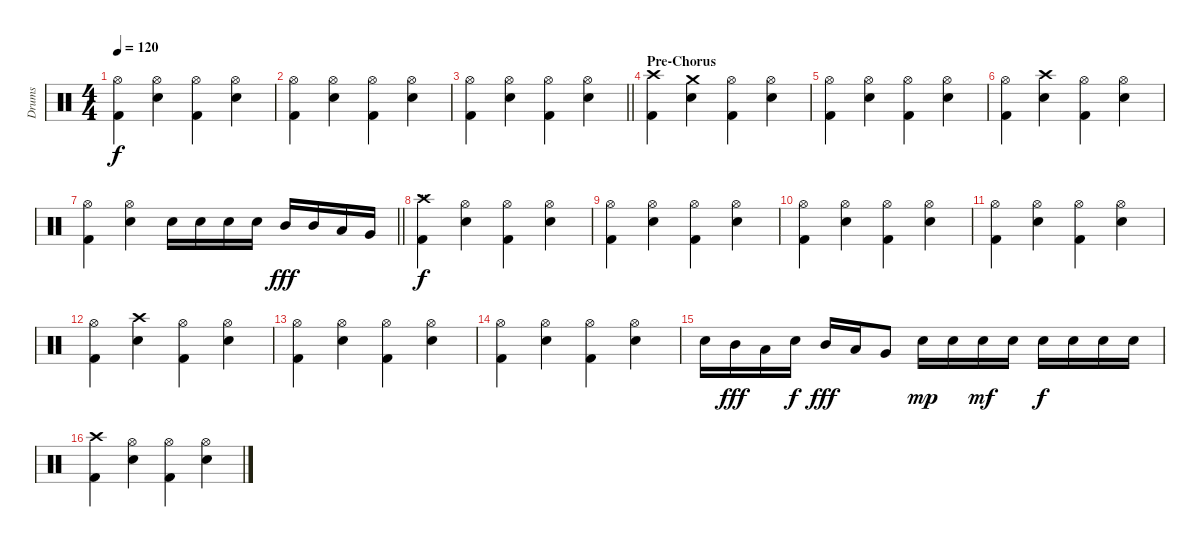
\track ("Drums" "Drums") {instrument percussion}
\staff {score}
\articulation defaults
\ts (4 4)
\tempo 120
\clef neutral
\ks c
("Hi-Hat (open)" "Kick (hit) 2").4{dy f} ("Hi-Hat (open)" "Snare (hit) 2").4 ("Hi-Hat (open)" "Kick (hit) 2").4 ("Hi-Hat (open)" "Snare (hit) 2").4 |
("Hi-Hat (open)" "Kick (hit) 2").4 ("Hi-Hat (open)" "Snare (hit) 2").4 ("Hi-Hat (open)" "Kick (hit) 2").4 ("Hi-Hat (open)" "Snare (hit) 2").4 |
\barLineRight lightlight
("Hi-Hat (open)" "Kick (hit) 2").4 ("Hi-Hat (open)" "Snare (hit) 2").4 ("Hi-Hat (open)" "Kick (hit) 2").4 ("Hi-Hat (open)" "Snare (hit) 2").4 |
\section ("" "Pre-Chorus")
("Crash high (hit)" "Kick (hit) 2").4 ("Crash medium (hit)" "Snare (hit) 2").4 ("Hi-Hat (open)" "Kick (hit) 2").4 ("Hi-Hat (open)" "Snare (hit) 2").4 |
("Hi-Hat (open)" "Kick (hit) 2").4 ("Hi-Hat (open)" "Snare (hit) 2").4 ("Hi-Hat (open)" "Kick (hit) 2").4 ("Hi-Hat (open)" "Snare (hit) 2").4 |
("Hi-Hat (open)" "Kick (hit) 2").4 ("Crash high (hit)" "Snare (hit) 2").4 ("Hi-Hat (open)" "Kick (hit) 2").4 ("Hi-Hat (open)" "Snare (hit) 2").4 |
\barLineRight lightlight
("Hi-Hat (open)" "Kick (hit) 2").4 ("Hi-Hat (open)" "Snare (hit) 2").4 "Snare (hit) 2".16 "Snare (hit) 2".16 "Snare (hit) 2".16 "Snare (hit) 2".16 "Mid Tom (hit)".16{dy fff} "Mid Tom (hit)".16 "Low Tom (hit)".16 "Very Low Tom (hit)".16 |
\section ("" "...")
("Crash high (hit)" "Kick (hit) 2").4{dy f} ("Hi-Hat (open)" "Snare (hit) 2").4 ("Hi-Hat (open)" "Kick (hit) 2").4 ("Hi-Hat (open)" "Snare (hit) 2").4 |
("Hi-Hat (open)" "Kick (hit) 2").4 ("Hi-Hat (open)" "Snare (hit) 2").4 ("Hi-Hat (open)" "Kick (hit) 2").4 ("Hi-Hat (open)" "Snare (hit) 2").4 |
("Hi-Hat (open)" "Kick (hit) 2").4 ("Hi-Hat (open)" "Snare (hit) 2").4 ("Hi-Hat (open)" "Kick (hit) 2").4 ("Hi-Hat (open)" "Snare (hit) 2").4 |
("Hi-Hat (open)" "Kick (hit) 2").4 ("Hi-Hat (open)" "Snare (hit) 2").4 ("Hi-Hat (open)" "Kick (hit) 2").4 ("Hi-Hat (open)" "Snare (hit) 2").4 |
("Hi-Hat (open)" "Kick (hit) 2").4{volume 0} ("Crash high (hit)" "Snare (hit) 2").4 ("Hi-Hat (open)" "Kick (hit) 2").4 ("Hi-Hat (open)" "Snare (hit) 2").4 |
("Hi-Hat (open)" "Kick (hit) 2").4 ("Hi-Hat (open)" "Snare (hit) 2").4 ("Hi-Hat (open)" "Kick (hit) 2").4 ("Hi-Hat (open)" "Snare (hit) 2").4 |
("Hi-Hat (open)" "Kick (hit) 2").4 ("Hi-Hat (open)" "Snare (hit) 2").4 ("Hi-Hat (open)" "Kick (hit) 2").4 ("Hi-Hat (open)" "Snare (hit) 2").4 |
"Snare (hit) 2".16 "Mid Tom (hit)".16{dy fff} "Low Tom (hit)".16 "Snare (hit) 2".16{dy f} "Mid Tom (hit)".16{dy fff} "Low Tom (hit)".16 "Very Low Tom (hit)".8 "Snare (hit) 2".16{dy mp} "Snare (hit) 2".16 "Snare (hit) 2".16{dy mf} "Snare (hit) 2".16 "Snare (hit) 2".16{dy f} "Snare (hit) 2".16 "Snare (hit) 2".16 "Snare (hit) 2".16 |
("Crash high (hit)" "Kick (hit) 2").4 ("Hi-Hat (open)" "Snare (hit) 2").4 ("Hi-Hat (open)" "Kick (hit) 2").4 ("Hi-Hat (open)" "Snare (hit) 2").4
